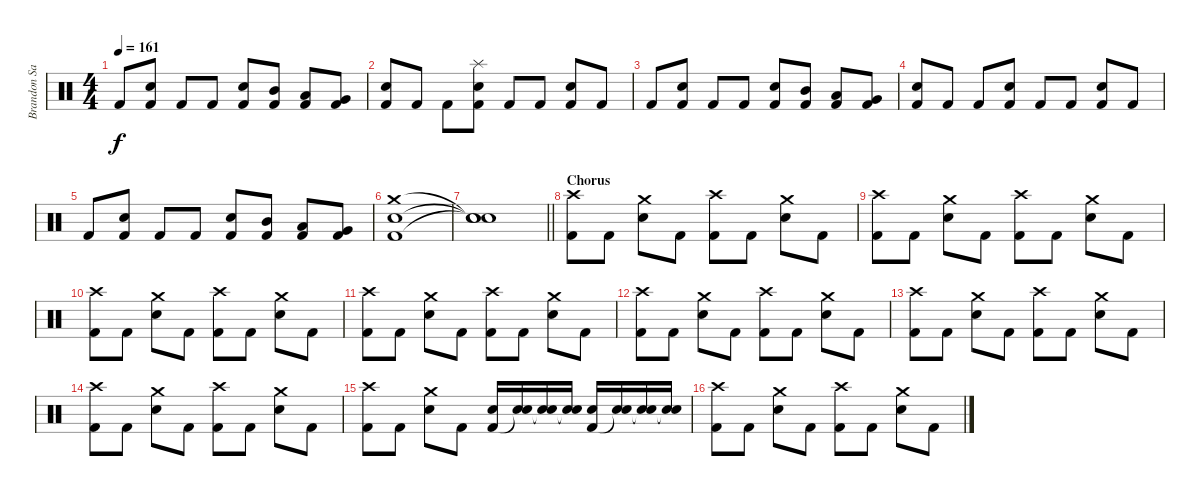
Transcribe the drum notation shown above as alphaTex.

\track ("Brandon Saller" "Brandon Sa") {instrument percussion}
\staff {score}
\articulation defaults
\ts (4 4)
\tempo 161
\clef neutral
\ks c "Kick (hit) 2".8{dy f}
("Snare (hit) 2" "Kick (hit) 2").8 "Kick (hit) 2".8 "Kick (hit) 2".8 ("Snare (hit) 2" "Kick (hit) 2").8 ("Mid Tom (hit)" "Kick (hit) 2").8 ("Low Tom (hit)" "Kick (hit) 2").8 ("Very Low Tom (hit)" "Kick (hit) 2").8 |
("Electric Snare (hit)" "Kick (hit) 2").8 "Kick (hit) 2".8 "Kick (hit) 2".8 ("Snare (hit) 2" "Kick (hit) 2" "Splash (hit)").8 "Kick (hit) 2".8 "Kick (hit) 2".8 ("Electric Snare (hit)" "Kick (hit) 2").8 "Kick (hit) 2".8 |
"Kick (hit) 2".8 ("Snare (hit) 2" "Kick (hit) 2").8 "Kick (hit) 2".8 "Kick (hit) 2".8 ("Snare (hit) 2" "Kick (hit) 2").8 ("Mid Tom (hit)" "Kick (hit) 2").8 ("Low Tom (hit)" "Kick (hit) 2").8 ("Very Low Tom (hit)" "Kick (hit) 2").8 |
("Electric Snare (hit)" "Kick (hit) 2").8 "Kick (hit) 2".8 "Kick (hit) 2".8 ("Snare (hit) 2" "Kick (hit) 2").8 "Kick (hit) 2".8 "Kick (hit) 2".8 ("Electric Snare (hit)" "Kick (hit) 2").8 "Kick (hit) 2".8 |
"Kick (hit) 2".8 ("Snare (hit) 2" "Kick (hit) 2").8 "Kick (hit) 2".8 "Kick (hit) 2".8 ("Snare (hit) 2" "Kick (hit) 2").8 ("Mid Tom (hit)" "Kick (hit) 2").8 ("Low Tom (hit)" "Kick (hit) 2").8 ("Very Low Tom (hit)" "Kick (hit) 2").8 |
("Kick (hit) 2" "Snare (hit) 2" "Crash medium (hit)").1 |
\barLineRight lightlight
("Snare (hit)"{t} "Snare (hit)"{t} "Snare (hit)"{t}).1 |
\section ("" "Chorus")
("Crash high (hit)" "Kick (hit) 2").8 "Kick (hit) 2".8 ("Crash medium (hit)" "Electric Snare (hit)").8 "Kick (hit) 2".8 ("Crash high (hit)" "Kick (hit) 2").8 "Kick (hit) 2".8 ("Crash medium (hit)" "Electric Snare (hit)").8 "Kick (hit) 2".8 |
("Crash high (hit)" "Kick (hit) 2").8 "Kick (hit) 2".8 ("Crash medium (hit)" "Electric Snare (hit)").8 "Kick (hit) 2".8 ("Crash high (hit)" "Kick (hit) 2").8 "Kick (hit) 2".8 ("Crash medium (hit)" "Electric Snare (hit)").8 "Kick (hit) 2".8 |
("Crash high (hit)" "Kick (hit) 2").8 "Kick (hit) 2".8 ("Crash medium (hit)" "Electric Snare (hit)").8 "Kick (hit) 2".8 ("Crash high (hit)" "Kick (hit) 2").8 "Kick (hit) 2".8 ("Crash medium (hit)" "Electric Snare (hit)").8 "Kick (hit) 2".8 |
("Crash high (hit)" "Kick (hit) 2").8 "Kick (hit) 2".8 ("Crash medium (hit)" "Electric Snare (hit)").8 "Kick (hit) 2".8 ("Crash high (hit)" "Kick (hit) 2").8 "Kick (hit) 2".8 ("Crash medium (hit)" "Electric Snare (hit)").8 "Kick (hit) 2".8 |
("Crash high (hit)" "Kick (hit) 2").8 "Kick (hit) 2".8 ("Crash medium (hit)" "Electric Snare (hit)").8 "Kick (hit) 2".8 ("Crash high (hit)" "Kick (hit) 2").8 "Kick (hit) 2".8 ("Crash medium (hit)" "Electric Snare (hit)").8 "Kick (hit) 2".8 |
("Crash high (hit)" "Kick (hit) 2").8 "Kick (hit) 2".8 ("Crash medium (hit)" "Electric Snare (hit)").8 "Kick (hit) 2".8 ("Crash high (hit)" "Kick (hit) 2").8 "Kick (hit) 2".8 ("Crash medium (hit)" "Electric Snare (hit)").8 "Kick (hit) 2".8 |
("Crash high (hit)" "Kick (hit) 2").8 "Kick (hit) 2".8 ("Crash medium (hit)" "Electric Snare (hit)").8 "Kick (hit) 2".8 ("Crash high (hit)" "Kick (hit) 2").8 "Kick (hit) 2".8 ("Crash medium (hit)" "Electric Snare (hit)").8 "Kick (hit) 2".8 |
("Crash high (hit)" "Kick (hit) 2").8 "Kick (hit) 2".8 ("Crash medium (hit)" "Electric Snare (hit)").8 "Kick (hit) 2".8 ("Snare (hit) 2" "Kick (hit) 2").16 ("Snare (hit) 2" "Snare (hit)"{t}).16 ("Snare (hit) 2" "Snare (hit)"{t}).16 ("Snare (hit) 2" "Snare (hit)"{t}).16 ("Snare (hit) 2" "Kick (hit) 2").16 ("Snare (hit) 2" "Snare (hit)"{t}).16 ("Snare (hit) 2" "Snare (hit)"{t}).16 ("Snare (hit) 2" "Snare (hit)"{t}).16 |
("Crash high (hit)" "Kick (hit) 2").8 "Kick (hit) 2".8 ("Crash medium (hit)" "Electric Snare (hit)").8 "Kick (hit) 2".8 ("Crash high (hit)" "Kick (hit) 2").8 "Kick (hit) 2".8 ("Crash medium (hit)" "Electric Snare (hit)").8 "Kick (hit) 2".8
